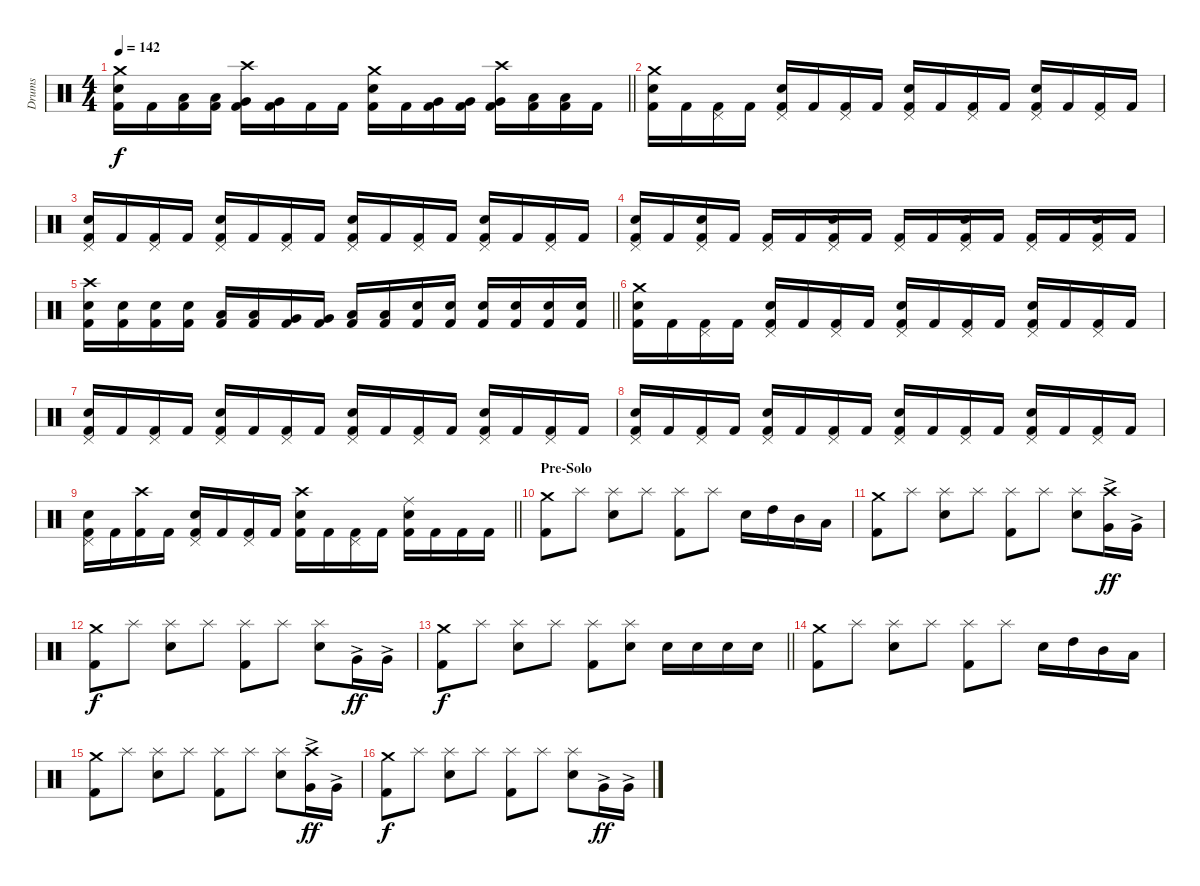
\track ("Drums" "Drums") {instrument percussion}
\staff {score}
\articulation defaults
\ts (4 4)
\tempo 142
\clef neutral
\barLineRight lightlight
\ks c
("Kick (hit) 2" "Snare (hit) 2" "Crash medium (hit)").16{dy f} "Kick (hit) 2".16 ("Kick (hit) 2" "Low Tom (hit)").16 ("Kick (hit) 2" "Low Tom (hit)").16 ("Kick (hit) 2" "Very Low Tom (hit)" "Crash high (hit)").16 ("Kick (hit) 2" "Very Low Tom (hit)").16 "Kick (hit) 2".16 "Kick (hit) 2".16 ("Kick (hit) 2" "Snare (hit) 2" "Crash medium (hit)").16 "Kick (hit) 2".16 ("Kick (hit) 2" "Very Low Tom (hit)").16 ("Kick (hit) 2" "Very Low Tom (hit)").16 ("Kick (hit) 2" "Very Low Tom (hit)" "Crash high (hit)").16 ("Kick (hit) 2" "Low Floor Tom (hit)").16 ("Kick (hit) 2" "Low Floor Tom (hit)").16 "Kick (hit) 2".16 |
\section ("" "")
("Kick (hit) 2" "Snare (hit) 2" "Crash medium (hit)").16 "Kick (hit) 2".16 ("Kick (hit) 2" "Pedal Hi-Hat (hit)").16 "Kick (hit) 2".16 ("Kick (hit) 2" "Snare (hit) 2" "Pedal Hi-Hat (hit)").16 "Kick (hit) 2".16 ("Kick (hit) 2" "Pedal Hi-Hat (hit)").16 "Kick (hit) 2".16 ("Kick (hit) 2" "Snare (hit) 2" "Pedal Hi-Hat (hit)").16 "Kick (hit) 2".16 ("Kick (hit) 2" "Pedal Hi-Hat (hit)").16 "Kick (hit) 2".16 ("Kick (hit) 2" "Snare (hit) 2" "Pedal Hi-Hat (hit)").16 "Kick (hit) 2".16 ("Kick (hit) 2" "Pedal Hi-Hat (hit)").16 "Kick (hit) 2".16 |
("Kick (hit) 2" "Snare (hit) 2" "Pedal Hi-Hat (hit)").16 "Kick (hit) 2".16 ("Kick (hit) 2" "Pedal Hi-Hat (hit)").16 "Kick (hit) 2".16 ("Kick (hit) 2" "Snare (hit) 2" "Pedal Hi-Hat (hit)").16 "Kick (hit) 2".16 ("Kick (hit) 2" "Pedal Hi-Hat (hit)").16 "Kick (hit) 2".16 ("Kick (hit) 2" "Snare (hit) 2" "Pedal Hi-Hat (hit)").16 "Kick (hit) 2".16 ("Kick (hit) 2" "Pedal Hi-Hat (hit)").16 "Kick (hit) 2".16 ("Kick (hit) 2" "Snare (hit) 2" "Pedal Hi-Hat (hit)").16 "Kick (hit) 2".16 ("Kick (hit) 2" "Pedal Hi-Hat (hit)").16 "Kick (hit) 2".16 |
("Kick (hit) 2" "Snare (hit) 2" "Pedal Hi-Hat (hit)").16 "Kick (hit) 2".16 ("Kick (hit) 2" "Snare (hit) 2" "Pedal Hi-Hat (hit)").16 "Kick (hit) 2".16 ("Kick (hit) 2" "Pedal Hi-Hat (hit)").16 "Kick (hit) 2".16 ("Kick (hit) 2" "Snare (hit) 2" "Pedal Hi-Hat (hit)").16 "Kick (hit) 2".16 ("Kick (hit) 2" "Pedal Hi-Hat (hit)").16 "Kick (hit) 2".16 ("Kick (hit) 2" "Snare (hit) 2" "Pedal Hi-Hat (hit)").16 "Kick (hit) 2".16 ("Kick (hit) 2" "Pedal Hi-Hat (hit)").16 "Kick (hit) 2".16 ("Kick (hit) 2" "Snare (hit) 2" "Pedal Hi-Hat (hit)").16 "Kick (hit) 2".16 |
\barLineRight lightlight
("Kick (hit) 2" "Snare (hit) 2" "Crash high (hit)").16 ("Kick (hit) 2" "Snare (hit) 2").16 ("Kick (hit) 2" "Snare (hit) 2").16 ("Kick (hit) 2" "Snare (hit) 2").16 ("Kick (hit) 2" "Low Tom (hit)").16 ("Kick (hit) 2" "Low Tom (hit)").16 ("Kick (hit) 2" "Very Low Tom (hit)").16 ("Kick (hit) 2" "Very Low Tom (hit)").16 ("Kick (hit) 2" "Low Floor Tom (hit)").16 ("Kick (hit) 2" "Low Floor Tom (hit)").16 ("Kick (hit) 2" "Snare (hit) 2").16 ("Kick (hit) 2" "Snare (hit) 2").16 ("Kick (hit) 2" "Snare (hit) 2").16 ("Kick (hit) 2" "Snare (hit) 2").16 ("Kick (hit) 2" "Snare (hit) 2").16 ("Kick (hit) 2" "Snare (hit) 2").16 |
\section ("" "")
("Kick (hit) 2" "Snare (hit) 2" "Crash medium (hit)").16 "Kick (hit) 2".16 ("Kick (hit) 2" "Pedal Hi-Hat (hit)").16 "Kick (hit) 2".16 ("Kick (hit) 2" "Snare (hit) 2" "Pedal Hi-Hat (hit)").16 "Kick (hit) 2".16 ("Kick (hit) 2" "Pedal Hi-Hat (hit)").16 "Kick (hit) 2".16 ("Kick (hit) 2" "Snare (hit) 2" "Pedal Hi-Hat (hit)").16 "Kick (hit) 2".16 ("Kick (hit) 2" "Pedal Hi-Hat (hit)").16 "Kick (hit) 2".16 ("Kick (hit) 2" "Snare (hit) 2" "Pedal Hi-Hat (hit)").16 "Kick (hit) 2".16 ("Kick (hit) 2" "Pedal Hi-Hat (hit)").16 "Kick (hit) 2".16 |
("Kick (hit) 2" "Snare (hit) 2" "Pedal Hi-Hat (hit)").16 "Kick (hit) 2".16 ("Kick (hit) 2" "Pedal Hi-Hat (hit)").16 "Kick (hit) 2".16 ("Kick (hit) 2" "Snare (hit) 2" "Pedal Hi-Hat (hit)").16 "Kick (hit) 2".16 ("Kick (hit) 2" "Pedal Hi-Hat (hit)").16 "Kick (hit) 2".16 ("Kick (hit) 2" "Snare (hit) 2" "Pedal Hi-Hat (hit)").16 "Kick (hit) 2".16 ("Kick (hit) 2" "Pedal Hi-Hat (hit)").16 "Kick (hit) 2".16 ("Kick (hit) 2" "Snare (hit) 2" "Pedal Hi-Hat (hit)").16 "Kick (hit) 2".16 ("Kick (hit) 2" "Pedal Hi-Hat (hit)").16 "Kick (hit) 2".16 |
("Kick (hit) 2" "Snare (hit) 2" "Pedal Hi-Hat (hit)").16 "Kick (hit) 2".16 ("Kick (hit) 2" "Pedal Hi-Hat (hit)").16 "Kick (hit) 2".16 ("Kick (hit) 2" "Snare (hit) 2" "Pedal Hi-Hat (hit)").16 "Kick (hit) 2".16 ("Kick (hit) 2" "Pedal Hi-Hat (hit)").16 "Kick (hit) 2".16 ("Kick (hit) 2" "Snare (hit) 2" "Pedal Hi-Hat (hit)").16 "Kick (hit) 2".16 ("Kick (hit) 2" "Pedal Hi-Hat (hit)").16 "Kick (hit) 2".16 ("Kick (hit) 2" "Snare (hit) 2" "Pedal Hi-Hat (hit)").16 "Kick (hit) 2".16 ("Kick (hit) 2" "Pedal Hi-Hat (hit)").16 "Kick (hit) 2".16 |
\barLineRight lightlight
("Kick (hit) 2" "Snare (hit) 2" "Pedal Hi-Hat (hit)").16 "Kick (hit) 2".16 ("Kick (hit) 2" "Crash high (hit)").16 "Kick (hit) 2".16 ("Kick (hit) 2" "Snare (hit) 2" "Pedal Hi-Hat (hit)").16 "Kick (hit) 2".16 ("Kick (hit) 2" "Pedal Hi-Hat (hit)").16 "Kick (hit) 2".16 ("Kick (hit) 2" "Snare (hit) 2" "Crash high (hit)").16 "Kick (hit) 2".16 ("Kick (hit) 2" "Pedal Hi-Hat (hit)").16 "Kick (hit) 2".16 ("Kick (hit) 2" "Snare (hit) 2" "Ride (middle)").16 "Kick (hit) 2".16 "Kick (hit) 2".16 "Kick (hit) 2".16 |
\section ("" "Pre-Solo")
("Kick (hit) 2" "Crash medium (hit)").8 "Splash (hit)".8 ("Snare (hit) 2" "Splash (hit)").8 "Splash (hit)".8 ("Kick (hit) 2" "Splash (hit)").8 "Splash (hit)".8 "Snare (hit) 2".16 "High Tom (hit)".16 "Mid Tom (hit)".16 "Low Tom (hit)".16 |
("Kick (hit) 2" "Crash medium (hit)").8 "Splash (hit)".8 ("Snare (hit) 2" "Splash (hit)").8 "Splash (hit)".8 ("Kick (hit) 2" "Splash (hit)").8 "Splash (hit)".8 ("Snare (hit) 2" "Splash (hit)").8 ("Very Low Tom (hit)"{ac} "Crash high (hit)").16{dy ff} "Very Low Tom (hit)"{ac}.16 |
("Kick (hit) 2" "Crash medium (hit)").8{dy f} "Splash (hit)".8 ("Snare (hit) 2" "Splash (hit)").8 "Splash (hit)".8 ("Kick (hit) 2" "Splash (hit)").8 "Splash (hit)".8 ("Snare (hit) 2" "Splash (hit)").8 "Very Low Tom (hit)"{ac}.16{dy ff} "Very Low Tom (hit)"{ac}.16 |
\barLineRight lightlight
("Kick (hit) 2" "Crash medium (hit)").8{dy f} "Splash (hit)".8 ("Snare (hit) 2" "Splash (hit)").8 "Splash (hit)".8 ("Kick (hit) 2" "Splash (hit)").8 ("Snare (hit) 2" "Splash (hit)").8 "Snare (hit) 2".16 "Snare (hit) 2".16 "Snare (hit) 2".16 "Snare (hit) 2".16 |
\section ("" "")
("Kick (hit) 2" "Crash medium (hit)").8 "Splash (hit)".8 ("Snare (hit) 2" "Splash (hit)").8 "Splash (hit)".8 ("Kick (hit) 2" "Splash (hit)").8 "Splash (hit)".8 "Snare (hit) 2".16 "High Tom (hit)".16 "Mid Tom (hit)".16 "Low Tom (hit)".16 |
("Kick (hit) 2" "Crash medium (hit)").8 "Splash (hit)".8 ("Snare (hit) 2" "Splash (hit)").8 "Splash (hit)".8 ("Kick (hit) 2" "Splash (hit)").8 "Splash (hit)".8 ("Snare (hit) 2" "Splash (hit)").8 ("Very Low Tom (hit)"{ac} "Crash high (hit)").16{dy ff} "Very Low Tom (hit)"{ac}.16 |
("Kick (hit) 2" "Crash medium (hit)").8{dy f} "Splash (hit)".8 ("Snare (hit) 2" "Splash (hit)").8 "Splash (hit)".8 ("Kick (hit) 2" "Splash (hit)").8 "Splash (hit)".8 ("Snare (hit) 2" "Splash (hit)").8 "Very Low Tom (hit)"{ac}.16{dy ff} "Very Low Tom (hit)"{ac}.16
